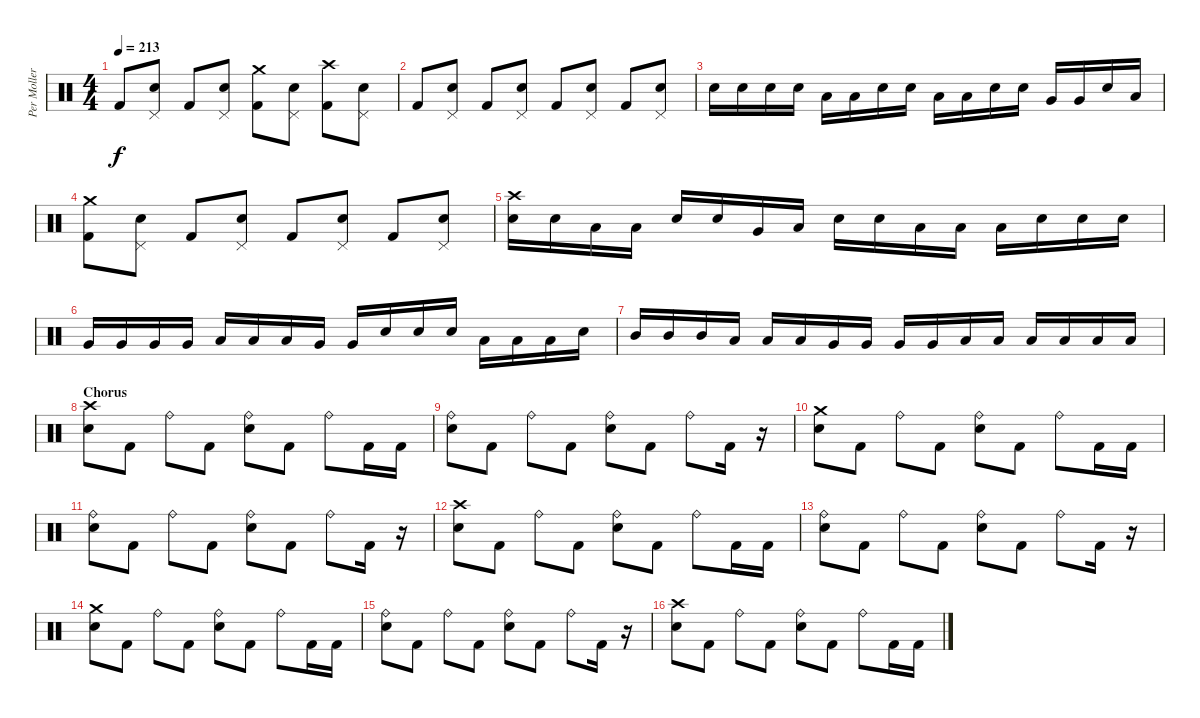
\track ("Per Moller Jensen" "Per Moller") {instrument percussion}
\staff {score}
\articulation defaults
\ts (4 4)
\tempo 213
\clef neutral
\ks c "Kick (hit) 2".8{dy f}
("Pedal Hi-Hat (hit)" "Snare (hit) 2").8 "Kick (hit) 2".8 ("Pedal Hi-Hat (hit)" "Snare (hit) 2").8 ("Crash medium (hit)" "Kick (hit) 2").8 ("Pedal Hi-Hat (hit)" "Snare (hit) 2").8 ("Crash high (hit)" "Kick (hit) 2").8 ("Pedal Hi-Hat (hit)" "Snare (hit) 2").8 |
"Kick (hit) 2".8 ("Pedal Hi-Hat (hit)" "Snare (hit) 2").8 "Kick (hit) 2".8 ("Pedal Hi-Hat (hit)" "Snare (hit) 2").8 "Kick (hit) 2".8 ("Pedal Hi-Hat (hit)" "Snare (hit) 2").8 "Kick (hit) 2".8 ("Pedal Hi-Hat (hit)" "Snare (hit) 2").8 |
"Snare (hit) 2".16 "Snare (hit) 2".16 "Snare (hit) 2".16 "Snare (hit) 2".16 "Low Floor Tom (hit)".16 "Low Floor Tom (hit)".16 "Snare (hit) 2".16 "Snare (hit) 2".16 "Low Floor Tom (hit)".16 "Low Floor Tom (hit)".16 "Snare (hit) 2".16 "Snare (hit) 2".16 "Very Low Tom (hit)".16 "Very Low Tom (hit)".16 "Snare (hit) 2".16 "Low Floor Tom (hit)".16 |
("Crash medium (hit)" "Kick (hit) 2").8 ("Pedal Hi-Hat (hit)" "Snare (hit) 2").8 "Kick (hit) 2".8 ("Pedal Hi-Hat (hit)" "Snare (hit) 2").8 "Kick (hit) 2".8 ("Pedal Hi-Hat (hit)" "Snare (hit) 2").8 "Kick (hit) 2".8 ("Pedal Hi-Hat (hit)" "Snare (hit) 2").8 |
("Crash high (hit)" "Snare (hit) 2").16 "Snare (hit) 2".16 "Low Tom (hit)".16 "Low Tom (hit)".16 "Snare (hit) 2".16 "Snare (hit) 2".16 "Very Low Tom (hit)".16 "Low Floor Tom (hit)".16 "Snare (hit) 2".16 "Snare (hit) 2".16 "Low Floor Tom (hit)".16 "Low Floor Tom (hit)".16 "Low Floor Tom (hit)".16 "Snare (hit) 2".16 "Snare (hit) 2".16 "Snare (hit) 2".16 |
"Very Low Tom (hit)".16 "Very Low Tom (hit)".16 "Very Low Tom (hit)".16 "Very Low Tom (hit)".16 "Low Floor Tom (hit)".16 "Low Floor Tom (hit)".16 "Low Floor Tom (hit)".16 "Very Low Tom (hit)".16 "Very Low Tom (hit)".16 "Snare (hit) 2".16 "Snare (hit) 2".16 "Snare (hit) 2".16 "Low Floor Tom (hit)".16 "Low Floor Tom (hit)".16 "Low Floor Tom (hit)".16 "Snare (hit) 2".16 |
"Mid Tom (hit)".16 "Mid Tom (hit)".16 "Mid Tom (hit)".16 "Low Tom (hit)".16 "Low Tom (hit)".16 "Low Tom (hit)".16 "Very Low Tom (hit)".16 "Very Low Tom (hit)".16 "Very Low Tom (hit)".16 "Very Low Tom (hit)".16 "Low Floor Tom (hit)".16 "Low Floor Tom (hit)".16 "Low Floor Tom (hit)".16 "Low Floor Tom (hit)".16 "Low Floor Tom (hit)".16 "Low Floor Tom (hit)".16 |
\section ("" "Chorus")
("Crash high (hit)" "Snare (hit) 2").8 "Kick (hit) 2".8 "Ride (bell)".8 "Kick (hit) 2".8 ("Ride (bell)" "Snare (hit) 2").8 "Kick (hit) 2".8 "Ride (bell)".8 "Kick (hit) 2".16 "Kick (hit) 2".16 |
("Ride (bell)" "Snare (hit) 2").8 "Kick (hit) 2".8 "Ride (bell)".8 "Kick (hit) 2".8 ("Ride (bell)" "Snare (hit) 2").8 "Kick (hit) 2".8 "Ride (bell)".8 "Kick (hit) 2".16 r.16 |
("Crash medium (hit)" "Snare (hit) 2").8 "Kick (hit) 2".8 "Ride (bell)".8 "Kick (hit) 2".8 ("Ride (bell)" "Snare (hit) 2").8 "Kick (hit) 2".8 "Ride (bell)".8 "Kick (hit) 2".16 "Kick (hit) 2".16 |
("Ride (bell)" "Snare (hit) 2").8 "Kick (hit) 2".8 "Ride (bell)".8 "Kick (hit) 2".8 ("Ride (bell)" "Snare (hit) 2").8 "Kick (hit) 2".8 "Ride (bell)".8 "Kick (hit) 2".16 r.16 |
("Crash high (hit)" "Snare (hit) 2").8 "Kick (hit) 2".8 "Ride (bell)".8 "Kick (hit) 2".8 ("Ride (bell)" "Snare (hit) 2").8 "Kick (hit) 2".8 "Ride (bell)".8 "Kick (hit) 2".16 "Kick (hit) 2".16 |
("Ride (bell)" "Snare (hit) 2").8 "Kick (hit) 2".8 "Ride (bell)".8 "Kick (hit) 2".8 ("Ride (bell)" "Snare (hit) 2").8 "Kick (hit) 2".8 "Ride (bell)".8 "Kick (hit) 2".16 r.16 |
("Crash medium (hit)" "Snare (hit) 2").8 "Kick (hit) 2".8 "Ride (bell)".8 "Kick (hit) 2".8 ("Ride (bell)" "Snare (hit) 2").8 "Kick (hit) 2".8 "Ride (bell)".8 "Kick (hit) 2".16 "Kick (hit) 2".16 |
("Ride (bell)" "Snare (hit) 2").8 "Kick (hit) 2".8 "Ride (bell)".8 "Kick (hit) 2".8 ("Ride (bell)" "Snare (hit) 2").8 "Kick (hit) 2".8 "Ride (bell)".8 "Kick (hit) 2".16 r.16 |
("Crash high (hit)" "Snare (hit) 2").8 "Kick (hit) 2".8 "Ride (bell)".8 "Kick (hit) 2".8 ("Ride (bell)" "Snare (hit) 2").8 "Kick (hit) 2".8 "Ride (bell)".8 "Kick (hit) 2".16 "Kick (hit) 2".16
